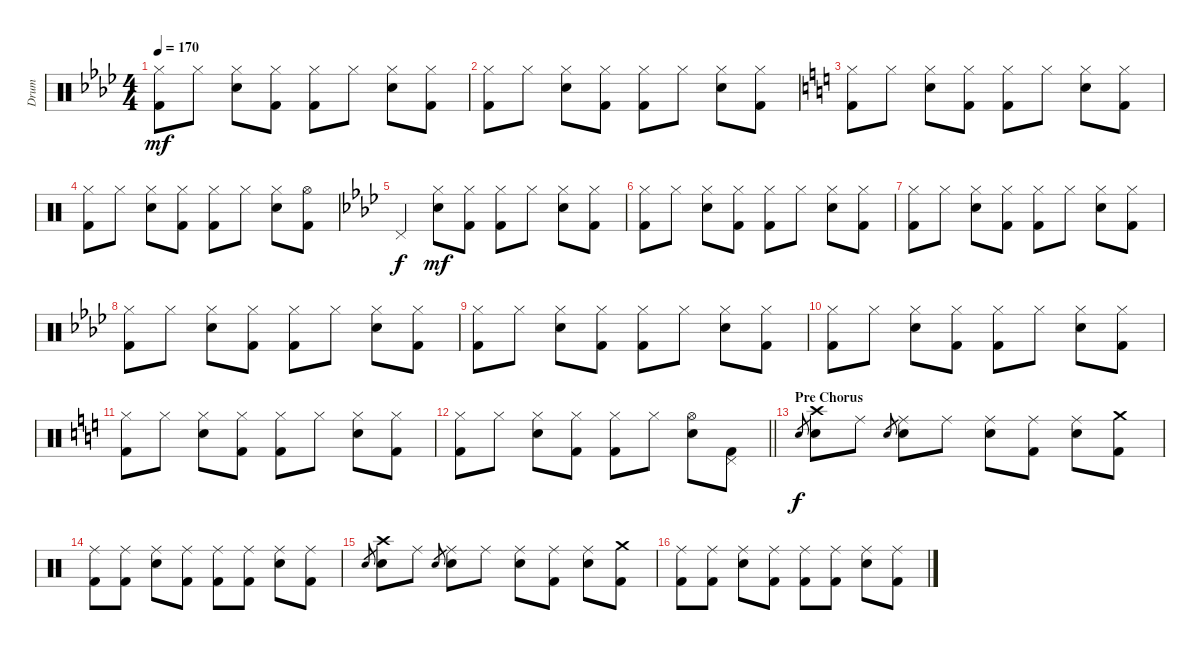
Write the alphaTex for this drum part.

\track ("Drum" "Drum") {instrument percussion}
\staff {score}
\articulation defaults
\ts (4 4)
\tempo 170
\clef neutral
\ks ab
("Hi-Hat (closed)" "Kick (hit) 2").8{dy mf} "Hi-Hat (closed)".8 ("Hi-Hat (closed)" "Electric Snare (hit)").8 ("Hi-Hat (closed)" "Kick (hit) 2").8 ("Hi-Hat (closed)" "Kick (hit) 2").8 "Hi-Hat (closed)".8 ("Hi-Hat (closed)" "Electric Snare (hit)").8 ("Hi-Hat (closed)" "Kick (hit) 2").8 |
("Hi-Hat (closed)" "Kick (hit) 2").8 "Hi-Hat (closed)".8 ("Hi-Hat (closed)" "Electric Snare (hit)").8 ("Hi-Hat (closed)" "Kick (hit) 2").8 ("Hi-Hat (closed)" "Kick (hit) 2").8 "Hi-Hat (closed)".8 ("Hi-Hat (closed)" "Electric Snare (hit)").8 ("Hi-Hat (closed)" "Kick (hit) 2").8 |
\ks c
("Hi-Hat (closed)" "Kick (hit) 2").8 "Hi-Hat (closed)".8 ("Hi-Hat (closed)" "Electric Snare (hit)").8 ("Hi-Hat (closed)" "Kick (hit) 2").8 ("Hi-Hat (closed)" "Kick (hit) 2").8 "Hi-Hat (closed)".8 ("Hi-Hat (closed)" "Electric Snare (hit)").8 ("Hi-Hat (closed)" "Kick (hit) 2").8 |
("Hi-Hat (closed)" "Kick (hit) 2").8 "Hi-Hat (closed)".8 ("Hi-Hat (closed)" "Electric Snare (hit)").8 ("Hi-Hat (closed)" "Kick (hit) 2").8 ("Hi-Hat (closed)" "Kick (hit) 2").8 "Hi-Hat (closed)".8 ("Hi-Hat (closed)" "Electric Snare (hit)").8 ("Hi-Hat (open)" "Kick (hit) 2").8 |
\ks ab "Pedal Hi-Hat (hit)".4{dy f}
("Hi-Hat (closed)" "Electric Snare (hit)").8{dy mf} ("Hi-Hat (closed)" "Kick (hit) 2").8 ("Hi-Hat (closed)" "Kick (hit) 2").8 "Hi-Hat (closed)".8 ("Hi-Hat (closed)" "Electric Snare (hit)").8 ("Hi-Hat (closed)" "Kick (hit) 2").8 |
("Hi-Hat (closed)" "Kick (hit) 2").8 "Hi-Hat (closed)".8 ("Hi-Hat (closed)" "Electric Snare (hit)").8 ("Hi-Hat (closed)" "Kick (hit) 2").8 ("Hi-Hat (closed)" "Kick (hit) 2").8 "Hi-Hat (closed)".8 ("Hi-Hat (closed)" "Electric Snare (hit)").8 ("Hi-Hat (closed)" "Kick (hit) 2").8 |
("Hi-Hat (closed)" "Kick (hit) 2").8 "Hi-Hat (closed)".8 ("Hi-Hat (closed)" "Electric Snare (hit)").8 ("Hi-Hat (closed)" "Kick (hit) 2").8 ("Hi-Hat (closed)" "Kick (hit) 2").8 "Hi-Hat (closed)".8 ("Hi-Hat (closed)" "Electric Snare (hit)").8 ("Hi-Hat (closed)" "Kick (hit) 2").8 |
("Hi-Hat (closed)" "Kick (hit) 2").8 "Hi-Hat (closed)".8 ("Hi-Hat (closed)" "Electric Snare (hit)").8 ("Hi-Hat (closed)" "Kick (hit) 2").8 ("Hi-Hat (closed)" "Kick (hit) 2").8 "Hi-Hat (closed)".8 ("Hi-Hat (closed)" "Electric Snare (hit)").8 ("Hi-Hat (closed)" "Kick (hit) 2").8 |
("Hi-Hat (closed)" "Kick (hit) 2").8 "Hi-Hat (closed)".8 ("Hi-Hat (closed)" "Electric Snare (hit)").8 ("Hi-Hat (closed)" "Kick (hit) 2").8 ("Hi-Hat (closed)" "Kick (hit) 2").8 "Hi-Hat (closed)".8 ("Hi-Hat (closed)" "Electric Snare (hit)").8 ("Hi-Hat (closed)" "Kick (hit) 2").8 |
("Hi-Hat (closed)" "Kick (hit) 2").8 "Hi-Hat (closed)".8 ("Hi-Hat (closed)" "Electric Snare (hit)").8 ("Hi-Hat (closed)" "Kick (hit) 2").8 ("Hi-Hat (closed)" "Kick (hit) 2").8 "Hi-Hat (closed)".8 ("Hi-Hat (closed)" "Electric Snare (hit)").8 ("Hi-Hat (closed)" "Kick (hit) 2").8 |
\ks c
("Hi-Hat (closed)" "Kick (hit) 2").8 "Hi-Hat (closed)".8 ("Hi-Hat (closed)" "Electric Snare (hit)").8 ("Hi-Hat (closed)" "Kick (hit) 2").8 ("Hi-Hat (closed)" "Kick (hit) 2").8 "Hi-Hat (closed)".8 ("Hi-Hat (closed)" "Electric Snare (hit)").8 ("Hi-Hat (closed)" "Kick (hit) 2").8 |
\barLineRight lightlight
("Hi-Hat (closed)" "Kick (hit) 2").8 "Hi-Hat (closed)".8 ("Hi-Hat (closed)" "Electric Snare (hit)").8 ("Hi-Hat (closed)" "Kick (hit) 2").8 ("Hi-Hat (closed)" "Kick (hit) 2").8 "Hi-Hat (closed)".8 ("Hi-Hat (open)" "Electric Snare (hit)").8 ("Pedal Hi-Hat (hit)" "Kick (hit) 2").8 |
\section ("" "Pre Chorus")
"Electric Snare (hit)".8{gr dy f} ("Crash high (hit)" "Electric Snare (hit)").8 "Ride (middle)".8 "Electric Snare (hit)".8{gr} ("Ride (middle)" "Electric Snare (hit)").8 "Ride (middle)".8 ("Ride (middle)" "Electric Snare (hit)").8 ("Ride (middle)" "Kick (hit) 2").8 ("Ride (middle)" "Electric Snare (hit)").8 ("Crash medium (hit)" "Kick (hit) 2").8 |
("Ride (middle)" "Kick (hit) 2").8 ("Ride (middle)" "Kick (hit) 2").8 ("Ride (middle)" "Electric Snare (hit)").8 ("Ride (middle)" "Kick (hit) 2").8 ("Ride (middle)" "Kick (hit) 2").8 ("Ride (middle)" "Kick (hit) 2").8 ("Ride (middle)" "Electric Snare (hit)").8 ("Ride (middle)" "Kick (hit) 2").8 |
"Electric Snare (hit)".8{gr} ("Crash high (hit)" "Electric Snare (hit)").8 "Ride (middle)".8 "Electric Snare (hit)".8{gr} ("Ride (middle)" "Electric Snare (hit)").8 "Ride (middle)".8 ("Ride (middle)" "Electric Snare (hit)").8 ("Ride (middle)" "Kick (hit) 2").8 ("Ride (middle)" "Electric Snare (hit)").8 ("Crash medium (hit)" "Kick (hit) 2").8 |
("Ride (middle)" "Kick (hit) 2").8 ("Ride (middle)" "Kick (hit) 2").8 ("Ride (middle)" "Electric Snare (hit)").8 ("Ride (middle)" "Kick (hit) 2").8 ("Ride (middle)" "Kick (hit) 2").8 ("Ride (middle)" "Kick (hit) 2").8 ("Ride (middle)" "Electric Snare (hit)").8 ("Ride (middle)" "Kick (hit) 2").8
